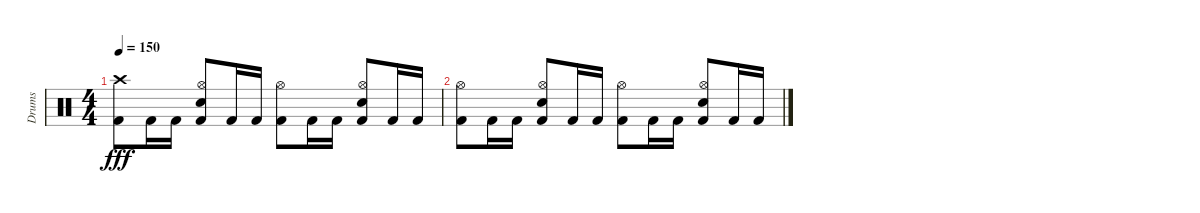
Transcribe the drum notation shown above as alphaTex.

\track ("Drums" "Drums") {instrument percussion}
\staff {score}
\articulation defaults
\ts (4 4)
\tempo 150
\clef neutral
\ks c
("Crash high (hit)" "Kick (hit) 2").8{dy fff} "Kick (hit) 2".16 "Kick (hit) 2".16 ("Hi-Hat (open)" "Snare (hit) 2" "Kick (hit) 2").8 "Kick (hit) 2".16 "Kick (hit) 2".16 ("Hi-Hat (open)" "Kick (hit) 2").8 "Kick (hit) 2".16 "Kick (hit) 2".16 ("Hi-Hat (open)" "Snare (hit) 2" "Kick (hit) 2").8 "Kick (hit) 2".16 "Kick (hit) 2".16 |
("Hi-Hat (open)" "Kick (hit) 2").8 "Kick (hit) 2".16 "Kick (hit) 2".16 ("Hi-Hat (open)" "Snare (hit) 2" "Kick (hit) 2").8 "Kick (hit) 2".16 "Kick (hit) 2".16 ("Hi-Hat (open)" "Kick (hit) 2").8 "Kick (hit) 2".16 "Kick (hit) 2".16 ("Hi-Hat (open)" "Snare (hit) 2" "Kick (hit) 2").8 "Kick (hit) 2".16 "Kick (hit) 2".16
